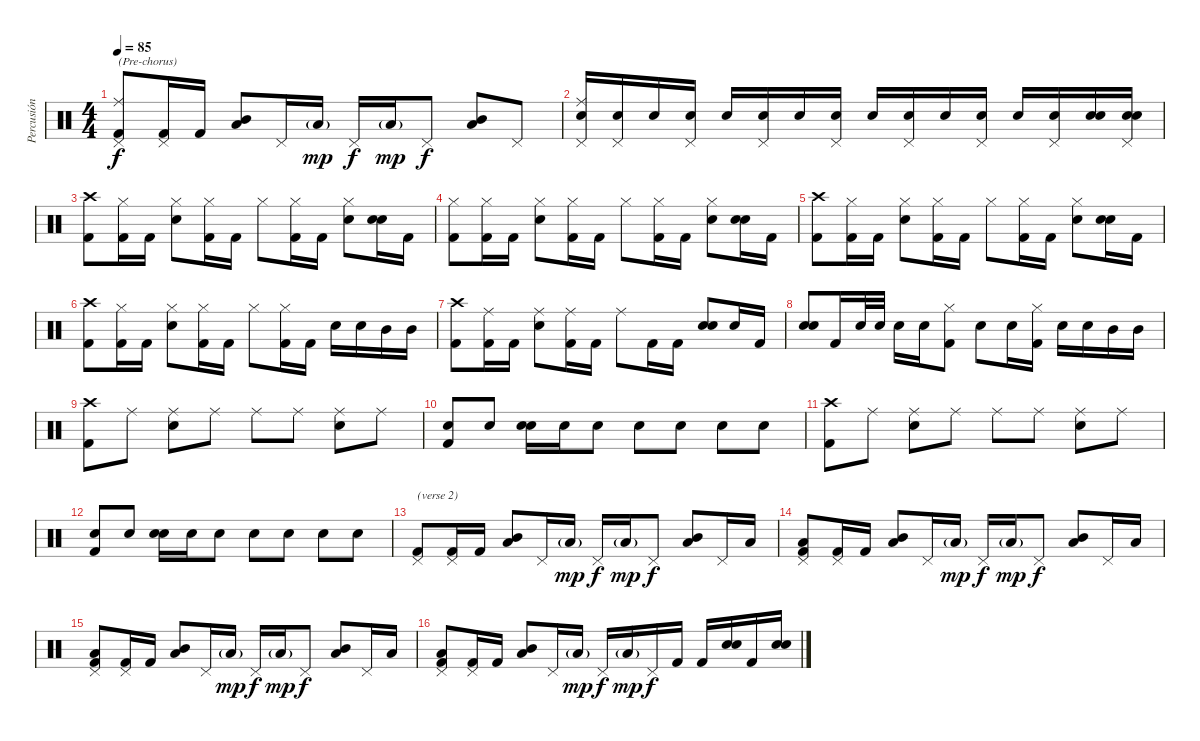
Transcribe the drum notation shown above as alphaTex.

\track ("Percusión" "Percusión") {instrument percussion}
\staff {score}
\articulation defaults
\ts (4 4)
\tempo 85
\clef neutral
\ks c
("Ride (middle)"{x} "Pedal Hi-Hat (hit)"{x} "Kick (hit) 2").8{txt "(Pre-chorus)" dy f} ("Pedal Hi-Hat (hit)"{x} "Kick (hit) 2").16 "Kick (hit) 2".16 ("Mid Tom (hit)" "Low Floor Tom (hit)").8 "Pedal Hi-Hat (hit)"{x}.16 "Low Floor Tom (hit)"{g}.16{dy mp} "Pedal Hi-Hat (hit)"{x}.16{dy f} "Low Floor Tom (hit)"{g}.16{dy mp} "Pedal Hi-Hat (hit)"{x}.8{dy f} ("Mid Tom (hit)" "Low Floor Tom (hit)").8 "Pedal Hi-Hat (hit)"{x}.8 |
("Ride (middle)"{x} "Electric Snare (hit)" "Pedal Hi-Hat (hit)").16 ("Electric Snare (hit)" "Pedal Hi-Hat (hit)").16 "Electric Snare (hit)".16 ("Electric Snare (hit)" "Pedal Hi-Hat (hit)").16 "Electric Snare (hit)".16{volume 10} ("Electric Snare (hit)" "Pedal Hi-Hat (hit)").16 "Electric Snare (hit)".16{volume 10} ("Electric Snare (hit)" "Pedal Hi-Hat (hit)").16 "Electric Snare (hit)".16{volume 11} ("Electric Snare (hit)" "Pedal Hi-Hat (hit)").16 "Electric Snare (hit)".16{volume 11} ("Electric Snare (hit)" "Pedal Hi-Hat (hit)").16 "Electric Snare (hit)".16{volume 12} ("Electric Snare (hit)" "Pedal Hi-Hat (hit)").16 ("Electric Snare (hit)" "Electric Snare (hit)").16{volume 12} ("Electric Snare (hit)" "Electric Snare (hit)" "Pedal Hi-Hat (hit)").16{volume 13} |
("Crash high (hit)"{x} "Kick (hit) 2").8{volume 7} ("Hi-Hat (closed)" "Kick (hit) 2").16{volume 7} "Kick (hit) 2".16 ("Hi-Hat (closed)" "Snare (hit) 2").8{volume 7} ("Hi-Hat (closed)" "Kick (hit) 2").16{volume 7} "Kick (hit) 2".16 "Hi-Hat (closed)".8 ("Hi-Hat (closed)" "Kick (hit) 2").16 "Kick (hit) 2".16 ("Hi-Hat (closed)" "Snare (hit) 2").8 ("Snare (hit) 2" "Snare (hit) 2").16 "Kick (hit) 2".16 |
("Hi-Hat (closed)" "Kick (hit) 2").8 ("Hi-Hat (closed)" "Kick (hit) 2").16 "Kick (hit) 2".16 ("Hi-Hat (closed)" "Snare (hit) 2").8 ("Hi-Hat (closed)" "Kick (hit) 2").16 "Kick (hit) 2".16 "Hi-Hat (closed)".8 ("Hi-Hat (closed)" "Kick (hit) 2").16 "Kick (hit) 2".16 ("Hi-Hat (closed)" "Snare (hit) 2").8 ("Snare (hit) 2" "Snare (hit) 2").16 "Kick (hit) 2".16 |
("Crash high (hit)"{x} "Kick (hit) 2").8 ("Hi-Hat (closed)" "Kick (hit) 2").16 "Kick (hit) 2".16 ("Hi-Hat (closed)" "Snare (hit) 2").8 ("Hi-Hat (closed)" "Kick (hit) 2").16 "Kick (hit) 2".16 "Hi-Hat (closed)".8 ("Hi-Hat (closed)" "Kick (hit) 2").16 "Kick (hit) 2".16 ("Hi-Hat (closed)" "Snare (hit) 2").8 ("Snare (hit) 2" "Snare (hit) 2").16 "Kick (hit) 2".16 |
("Crash high (hit)"{x} "Kick (hit) 2").8 ("Hi-Hat (closed)" "Kick (hit) 2").16 "Kick (hit) 2".16 ("Hi-Hat (closed)" "Snare (hit) 2").8 ("Hi-Hat (closed)" "Kick (hit) 2").16 "Kick (hit) 2".16 "Hi-Hat (closed)".8 ("Hi-Hat (closed)" "Kick (hit) 2").16 "Kick (hit) 2".16 "Snare (hit) 2".16 "Snare (hit) 2".16 "Mid Tom (hit)".16 "Mid Tom (hit)".16 |
("Crash high (hit)"{x} "Kick (hit) 2").8 ("Ride (middle)"{x} "Kick (hit) 2").16 "Kick (hit) 2".16 ("Ride (middle)"{x} "Snare (hit) 2").8 ("Ride (middle)"{x} "Kick (hit) 2").16 "Kick (hit) 2".16 "Ride (middle)"{x}.8 "Kick (hit) 2".16 "Kick (hit) 2".16 ("Snare (hit)"{x} "Snare (hit) 2").8 "Snare (hit)"{x}.16 "Kick (hit) 2".16 |
("Snare (hit)"{x} "Snare (hit) 2").8 "Kick (hit) 2".16 "Snare (hit) 2".32 "Snare (hit) 2".32 "Snare (hit) 2".16 "Snare (hit) 2".16 ("Hi-Hat (closed)" "Kick (hit) 2").8 "Snare (hit) 2".8 "Snare (hit) 2".16 ("Hi-Hat (closed)" "Kick (hit) 2").16 "Snare (hit) 2".16 "Snare (hit) 2".16 "Mid Tom (hit)".16 "Mid Tom (hit)".16 |
("Crash high (hit)"{x} "Kick (hit) 2").8 "Ride (middle)"{x}.8 ("Ride (middle)"{x} "Snare (hit) 2").8 "Ride (middle)"{x}.8 "Ride (middle)"{x}.8 "Ride (middle)"{x}.8 ("Ride (middle)"{x} "Snare (hit) 2").8 "Ride (middle)"{x}.8 |
("Snare (hit)"{x} "Kick (hit) 2").8 "Snare (hit)"{x}.8 ("Snare (hit)"{x} "Snare (hit) 2").16 "Snare (hit) 2".16 "Snare (hit)"{x}.8 "Snare (hit)"{x}.8 "Snare (hit)"{x}.8 "Snare (hit)"{x}.8 "Snare (hit)"{x}.8 |
("Crash high (hit)"{x} "Kick (hit) 2").8 "Ride (middle)"{x}.8 ("Ride (middle)"{x} "Snare (hit) 2").8 "Ride (middle)"{x}.8 "Ride (middle)"{x}.8 "Ride (middle)"{x}.8 ("Ride (middle)"{x} "Snare (hit) 2").8 "Ride (middle)"{x}.8 |
("Snare (hit)"{x} "Kick (hit) 2").8 "Snare (hit)"{x}.8 ("Snare (hit)"{x} "Snare (hit) 2").16 "Snare (hit) 2".16 "Snare (hit)"{x}.8 "Snare (hit)"{x}.8 "Snare (hit)"{x}.8 "Snare (hit)"{x}.8 "Snare (hit)"{x}.8 |
("Pedal Hi-Hat (hit)"{x} "Kick (hit) 2").8{txt "(verse 2)"} ("Pedal Hi-Hat (hit)"{x} "Kick (hit) 2").16 "Kick (hit) 2".16 ("Mid Tom (hit)" "Low Floor Tom (hit)").8 "Pedal Hi-Hat (hit)"{x}.16 "Low Floor Tom (hit)"{g}.16{dy mp} "Pedal Hi-Hat (hit)"{x}.16{dy f} "Low Floor Tom (hit)"{g}.16{dy mp} "Pedal Hi-Hat (hit)"{x}.8{dy f} ("Mid Tom (hit)" "Low Floor Tom (hit)").8 "Pedal Hi-Hat (hit)"{x}.16 "Low Floor Tom (hit)".16 |
("Low Floor Tom (hit)" "Pedal Hi-Hat (hit)"{x} "Kick (hit) 2").8 ("Pedal Hi-Hat (hit)"{x} "Kick (hit) 2").16 "Kick (hit) 2".16 ("Mid Tom (hit)" "Low Floor Tom (hit)").8 "Pedal Hi-Hat (hit)"{x}.16 "Low Floor Tom (hit)"{g}.16{dy mp} "Pedal Hi-Hat (hit)"{x}.16{dy f} "Low Floor Tom (hit)"{g}.16{dy mp} "Pedal Hi-Hat (hit)"{x}.8{dy f} ("Mid Tom (hit)" "Low Floor Tom (hit)").8 "Pedal Hi-Hat (hit)"{x}.16 "Low Floor Tom (hit)".16 |
("Low Floor Tom (hit)" "Pedal Hi-Hat (hit)"{x} "Kick (hit) 2").8 ("Pedal Hi-Hat (hit)"{x} "Kick (hit) 2").16 "Kick (hit) 2".16 ("Mid Tom (hit)" "Low Floor Tom (hit)").8 "Pedal Hi-Hat (hit)"{x}.16 "Low Floor Tom (hit)"{g}.16{dy mp} "Pedal Hi-Hat (hit)"{x}.16{dy f} "Low Floor Tom (hit)"{g}.16{dy mp} "Pedal Hi-Hat (hit)"{x}.8{dy f} ("Mid Tom (hit)" "Low Floor Tom (hit)").8 "Pedal Hi-Hat (hit)"{x}.16 "Low Floor Tom (hit)".16 |
("Low Floor Tom (hit)" "Pedal Hi-Hat (hit)"{x} "Kick (hit) 2").8 ("Pedal Hi-Hat (hit)"{x} "Kick (hit) 2").16 "Kick (hit) 2".16 ("Mid Tom (hit)" "Low Floor Tom (hit)").8 "Pedal Hi-Hat (hit)"{x}.16 "Low Floor Tom (hit)"{g}.16{dy mp} "Pedal Hi-Hat (hit)"{x}.16{dy f} "Low Floor Tom (hit)"{g}.16{dy mp} "Pedal Hi-Hat (hit)"{x}.16{dy f} "Kick (hit) 2".16 "Kick (hit) 2".16 ("Snare (hit) 2" "Snare (hit) 2").16 "Kick (hit) 2".16 ("Snare (hit) 2" "Snare (hit) 2").16
